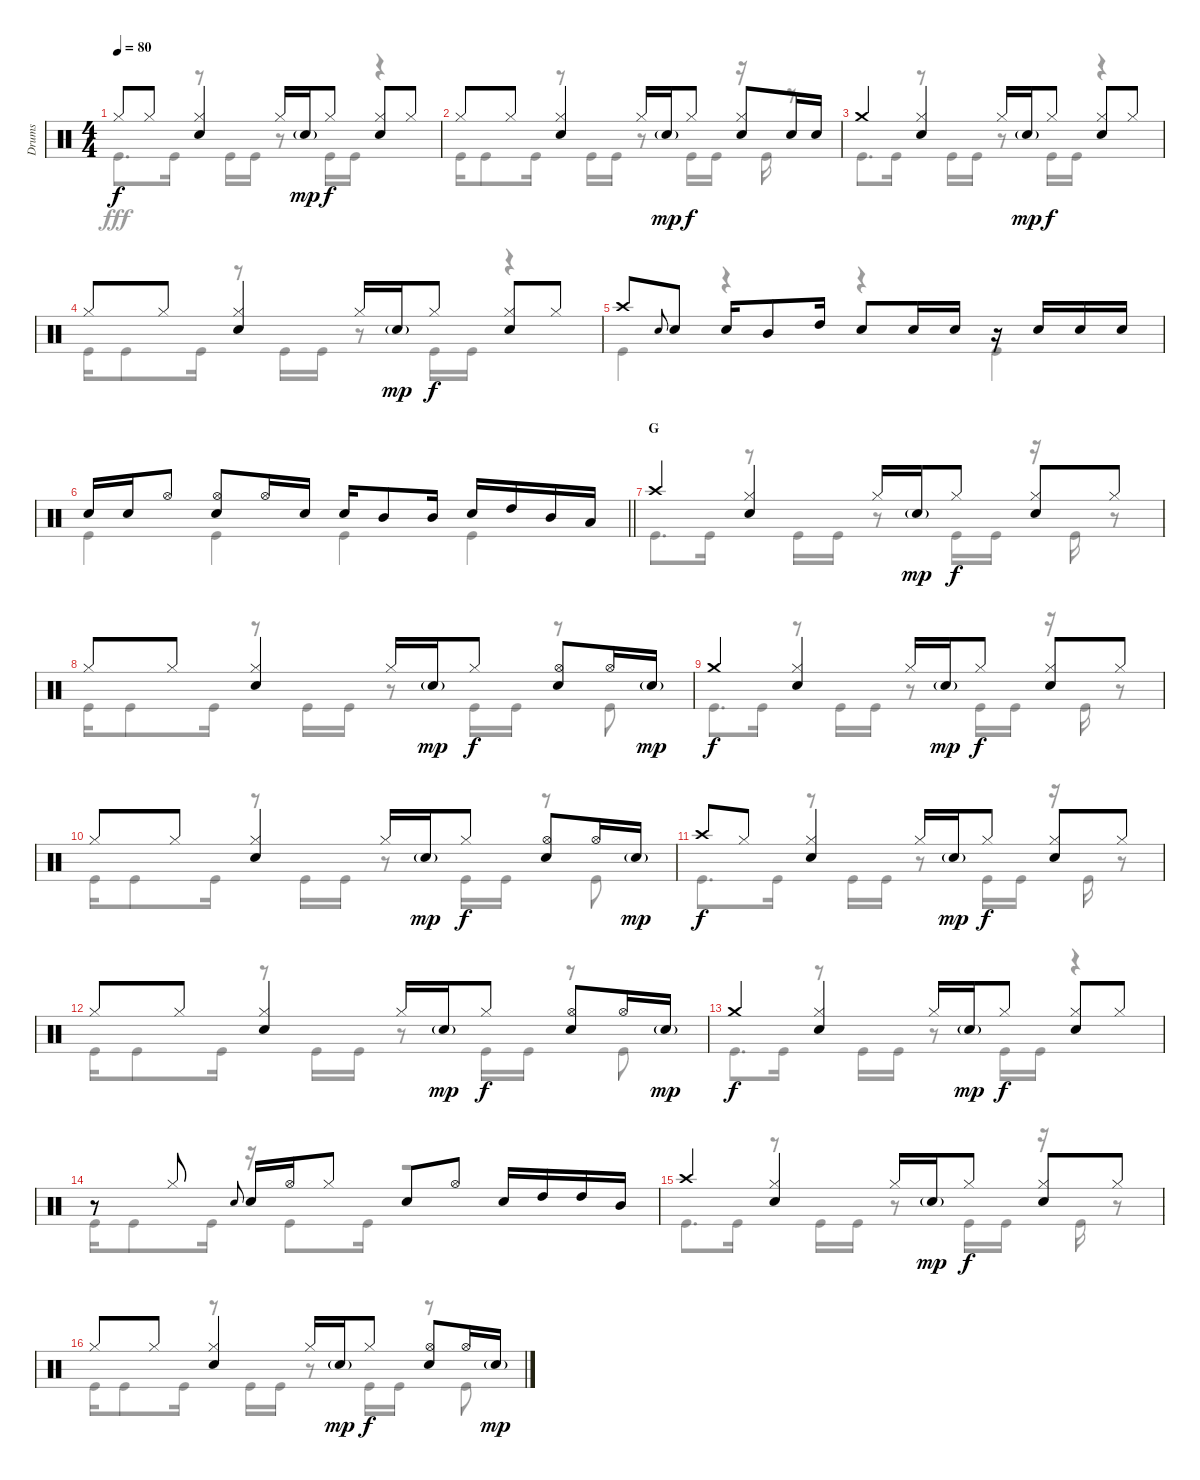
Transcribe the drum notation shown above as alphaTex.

\track ("Drums" "Drums") {instrument percussion}
\staff {score}
\articulation defaults
\voice
\ts (4 4)
\tempo 80
\clef neutral
\ks c "Hi-Hat (closed)".8{dy f} "Hi-Hat (closed)".8
("Hi-Hat (closed)" "Snare (hit) 2").4 "Hi-Hat (closed)".16 "Snare (hit) 2"{g}.16{dy mp} "Hi-Hat (closed)".8{dy f} ("Hi-Hat (closed)" "Snare (hit) 2").8 "Hi-Hat (closed)".8 |
"Hi-Hat (closed)".8 "Hi-Hat (closed)".8 ("Hi-Hat (closed)" "Snare (hit) 2").4 "Hi-Hat (closed)".16 "Snare (hit) 2"{g}.16{dy mp} "Hi-Hat (closed)".8{dy f} ("Hi-Hat (closed)" "Snare (hit) 2").8 "Snare (hit) 2".16 "Snare (hit) 2".16 |
"Crash medium (hit)".4 ("Hi-Hat (closed)" "Snare (hit) 2").4 "Hi-Hat (closed)".16 "Snare (hit) 2"{g}.16{dy mp} "Hi-Hat (closed)".8{dy f} ("Hi-Hat (closed)" "Snare (hit) 2").8 "Hi-Hat (closed)".8 |
"Hi-Hat (closed)".8 "Hi-Hat (closed)".8 ("Hi-Hat (closed)" "Snare (hit) 2").4 "Hi-Hat (closed)".16 "Snare (hit) 2"{g}.16{dy mp} "Hi-Hat (closed)".8{dy f} ("Hi-Hat (closed)" "Snare (hit) 2").8 "Hi-Hat (closed)".8 |
"Crash high (hit)".8 "Snare (hit) 2".8{gr onbeat} "Snare (hit) 2".8 "Snare (hit) 2".16 "Mid Tom (hit)".8 "High Tom (hit)".16 "Snare (hit) 2".8 "Snare (hit) 2".16 "Snare (hit) 2".16 r.16 "Snare (hit) 2".16 "Snare (hit) 2".16 "Snare (hit) 2".16 |
\barLineRight lightlight "Snare (hit) 2".16 "Snare (hit) 2".16 "Hi-Hat (open)".8
("Hi-Hat (open)" "Snare (hit) 2").8 "Hi-Hat (open)".16 "Snare (hit) 2".16 "Snare (hit) 2".16 "Mid Tom (hit)".8 "Mid Tom (hit)".16 "Snare (hit) 2".16 "High Tom (hit)".16 "Mid Tom (hit)".16 "Low Tom (hit)".16 |
\section ("" "G")
"Crash high (hit)".4 ("Hi-Hat (closed)" "Snare (hit) 2").4 "Hi-Hat (closed)".16 "Snare (hit) 2"{g}.16{dy mp} "Hi-Hat (closed)".8{dy f} ("Hi-Hat (closed)" "Snare (hit) 2").8 "Hi-Hat (closed)".8 |
"Hi-Hat (closed)".8 "Hi-Hat (closed)".8 ("Hi-Hat (closed)" "Snare (hit) 2").4 "Hi-Hat (closed)".16 "Snare (hit) 2"{g}.16{dy mp} "Hi-Hat (closed)".8{dy f} ("Hi-Hat (open)" "Snare (hit) 2").8 "Hi-Hat (open)".16 "Snare (hit) 2"{g}.16{dy mp} |
"Crash medium (hit)".4{dy f} ("Hi-Hat (closed)" "Snare (hit) 2").4 "Hi-Hat (closed)".16 "Snare (hit) 2"{g}.16{dy mp} "Hi-Hat (closed)".8{dy f} ("Hi-Hat (closed)" "Snare (hit) 2").8 "Hi-Hat (closed)".8 |
"Hi-Hat (closed)".8 "Hi-Hat (closed)".8 ("Hi-Hat (closed)" "Snare (hit) 2").4 "Hi-Hat (closed)".16 "Snare (hit) 2"{g}.16{dy mp} "Hi-Hat (closed)".8{dy f} ("Hi-Hat (open)" "Snare (hit) 2").8 "Hi-Hat (open)".16 "Snare (hit) 2"{g}.16{dy mp} |
"Crash high (hit)".8{dy f} "Hi-Hat (closed)".8 ("Hi-Hat (closed)" "Snare (hit) 2").4 "Hi-Hat (closed)".16 "Snare (hit) 2"{g}.16{dy mp} "Hi-Hat (closed)".8{dy f} ("Hi-Hat (closed)" "Snare (hit) 2").8 "Hi-Hat (closed)".8 |
"Hi-Hat (closed)".8 "Hi-Hat (closed)".8 ("Hi-Hat (closed)" "Snare (hit) 2").4 "Hi-Hat (closed)".16 "Snare (hit) 2"{g}.16{dy mp} "Hi-Hat (closed)".8{dy f} ("Hi-Hat (open)" "Snare (hit) 2").8 "Hi-Hat (open)".16 "Snare (hit) 2"{g}.16{dy mp} |
"Crash medium (hit)".4{dy f} ("Hi-Hat (closed)" "Snare (hit) 2").4 "Hi-Hat (closed)".16 "Snare (hit) 2"{g}.16{dy mp} "Hi-Hat (closed)".8{dy f} ("Hi-Hat (closed)" "Snare (hit) 2").8 "Hi-Hat (closed)".8 |
r.8 "Hi-Hat (closed)".8 "Snare (hit) 2".8{gr onbeat} "Snare (hit) 2".16 "Hi-Hat (open)".16 "Hi-Hat (closed)".8 "Snare (hit) 2".8 "Hi-Hat (open)".8 "Snare (hit) 2".16 "High Tom (hit)".16 "High Tom (hit)".16 "Mid Tom (hit)".16 |
"Crash high (hit)".4 ("Hi-Hat (closed)" "Snare (hit) 2").4 "Hi-Hat (closed)".16 "Snare (hit) 2"{g}.16{dy mp} "Hi-Hat (closed)".8{dy f} ("Hi-Hat (closed)" "Snare (hit) 2").8 "Hi-Hat (closed)".8 |
"Hi-Hat (closed)".8 "Hi-Hat (closed)".8 ("Hi-Hat (closed)" "Snare (hit) 2").4 "Hi-Hat (closed)".16 "Snare (hit) 2"{g}.16{dy mp} "Hi-Hat (closed)".8{dy f} ("Hi-Hat (open)" "Snare (hit) 2").8 "Hi-Hat (open)".16 "Snare (hit) 2"{g}.16{dy mp}
\voice
\clef neutral
\ottava regular
\simile none
\ks c "Kick (hit)".8{d dy fff} "Kick (hit)".16
r.8 "Kick (hit)".16 "Kick (hit)".16 r.8 "Kick (hit)".16 "Kick (hit)".16 r.4 |
"Kick (hit)".16 "Kick (hit)".8 "Kick (hit)".16 r.8 "Kick (hit)".16 "Kick (hit)".16 r.8 "Kick (hit)".16 "Kick (hit)".16 r.16 "Kick (hit)".16 r.8 |
"Kick (hit)".8{d} "Kick (hit)".16 r.8 "Kick (hit)".16 "Kick (hit)".16 r.8 "Kick (hit)".16 "Kick (hit)".16 r.4 |
"Kick (hit)".16 "Kick (hit)".8 "Kick (hit)".16 r.8 "Kick (hit)".16 "Kick (hit)".16 r.8 "Kick (hit)".16 "Kick (hit)".16 r.4 |
"Kick (hit)".4 r.4 r.4 "Kick (hit)".4 |
\barLineRight lightlight "Kick (hit)".4 "Kick (hit)".4 "Kick (hit)".4 "Kick (hit)".4
|
"Kick (hit)".8{d} "Kick (hit)".16 r.8 "Kick (hit)".16 "Kick (hit)".16 r.8 "Kick (hit)".16 "Kick (hit)".16 r.16 "Kick (hit)".16 r.8 |
"Kick (hit)".16 "Kick (hit)".8 "Kick (hit)".16 r.8 "Kick (hit)".16 "Kick (hit)".16 r.8 "Kick (hit)".16 "Kick (hit)".16 r.8 "Kick (hit)".8 |
"Kick (hit)".8{d} "Kick (hit)".16 r.8 "Kick (hit)".16 "Kick (hit)".16 r.8 "Kick (hit)".16 "Kick (hit)".16 r.16 "Kick (hit)".16 r.8 |
"Kick (hit)".16 "Kick (hit)".8 "Kick (hit)".16 r.8 "Kick (hit)".16 "Kick (hit)".16 r.8 "Kick (hit)".16 "Kick (hit)".16 r.8 "Kick (hit)".8 |
"Kick (hit)".8{d} "Kick (hit)".16 r.8 "Kick (hit)".16 "Kick (hit)".16 r.8 "Kick (hit)".16 "Kick (hit)".16 r.16 "Kick (hit)".16 r.8 |
"Kick (hit)".16 "Kick (hit)".8 "Kick (hit)".16 r.8 "Kick (hit)".16 "Kick (hit)".16 r.8 "Kick (hit)".16 "Kick (hit)".16 r.8 "Kick (hit)".8 |
"Kick (hit)".8{d} "Kick (hit)".16 r.8 "Kick (hit)".16 "Kick (hit)".16 r.8 "Kick (hit)".16 "Kick (hit)".16 r.4 |
"Kick (hit)".16 "Kick (hit)".8 "Kick (hit)".16 r.16 "Kick (hit)".8 "Kick (hit)".16 r.2 |
"Kick (hit)".8{d} "Kick (hit)".16 r.8 "Kick (hit)".16 "Kick (hit)".16 r.8 "Kick (hit)".16 "Kick (hit)".16 r.16 "Kick (hit)".16 r.8 |
"Kick (hit)".16 "Kick (hit)".8 "Kick (hit)".16 r.8 "Kick (hit)".16 "Kick (hit)".16 r.8 "Kick (hit)".16 "Kick (hit)".16 r.8 "Kick (hit)".8
